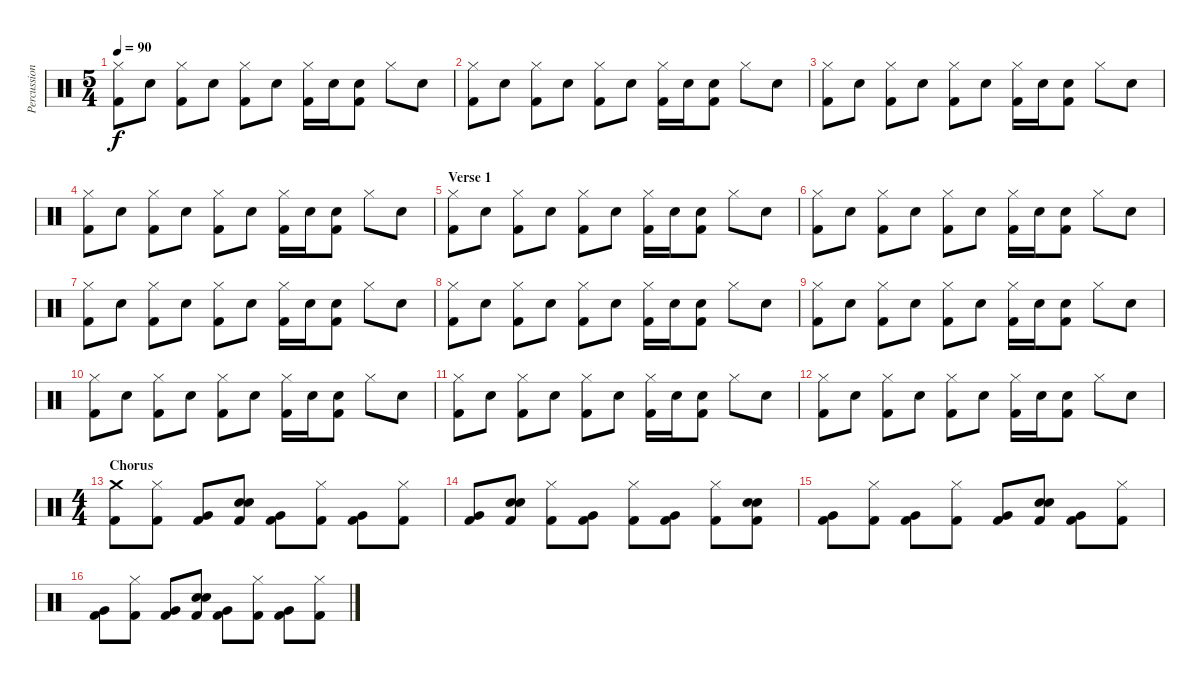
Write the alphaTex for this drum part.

\track ("Percussion" "Percussion") {instrument percussion}
\staff {score}
\articulation defaults
\ts (5 4)
\tempo 90
\clef neutral
\ks c
("Hi-Hat (closed)" "Kick (hit) 2").8{dy f} "Snare (hit) 2".8 ("Hi-Hat (closed)" "Kick (hit) 2").8 "Snare (hit) 2".8 ("Hi-Hat (closed)" "Kick (hit) 2").8 "Snare (hit) 2".8 ("Hi-Hat (closed)" "Kick (hit) 2").16 "Snare (hit) 2".16 ("Snare (hit) 2" "Kick (hit) 2").8 "Hi-Hat (closed)".8 "Snare (hit) 2".8 |
("Hi-Hat (closed)" "Kick (hit) 2").8 "Snare (hit) 2".8 ("Hi-Hat (closed)" "Kick (hit) 2").8 "Snare (hit) 2".8 ("Hi-Hat (closed)" "Kick (hit) 2").8 "Snare (hit) 2".8 ("Hi-Hat (closed)" "Kick (hit) 2").16 "Snare (hit) 2".16 ("Snare (hit) 2" "Kick (hit) 2").8 "Hi-Hat (closed)".8 "Snare (hit) 2".8 |
("Hi-Hat (closed)" "Kick (hit) 2").8 "Snare (hit) 2".8 ("Hi-Hat (closed)" "Kick (hit) 2").8 "Snare (hit) 2".8 ("Hi-Hat (closed)" "Kick (hit) 2").8 "Snare (hit) 2".8 ("Hi-Hat (closed)" "Kick (hit) 2").16 "Snare (hit) 2".16 ("Snare (hit) 2" "Kick (hit) 2").8 "Hi-Hat (closed)".8 "Snare (hit) 2".8 |
("Hi-Hat (closed)" "Kick (hit) 2").8 "Snare (hit) 2".8 ("Hi-Hat (closed)" "Kick (hit) 2").8 "Snare (hit) 2".8 ("Hi-Hat (closed)" "Kick (hit) 2").8 "Snare (hit) 2".8 ("Hi-Hat (closed)" "Kick (hit) 2").16 "Snare (hit) 2".16 ("Snare (hit) 2" "Kick (hit) 2").8 "Hi-Hat (closed)".8 "Snare (hit) 2".8 |
\section ("" "Verse 1")
("Hi-Hat (closed)" "Kick (hit) 2").8 "Snare (hit) 2".8 ("Hi-Hat (closed)" "Kick (hit) 2").8 "Snare (hit) 2".8 ("Hi-Hat (closed)" "Kick (hit) 2").8 "Snare (hit) 2".8 ("Hi-Hat (closed)" "Kick (hit) 2").16 "Snare (hit) 2".16 ("Snare (hit) 2" "Kick (hit) 2").8 "Hi-Hat (closed)".8 "Snare (hit) 2".8 |
("Hi-Hat (closed)" "Kick (hit) 2").8 "Snare (hit) 2".8 ("Hi-Hat (closed)" "Kick (hit) 2").8 "Snare (hit) 2".8 ("Hi-Hat (closed)" "Kick (hit) 2").8 "Snare (hit) 2".8 ("Hi-Hat (closed)" "Kick (hit) 2").16 "Snare (hit) 2".16 ("Snare (hit) 2" "Kick (hit) 2").8 "Hi-Hat (closed)".8 "Snare (hit) 2".8 |
("Hi-Hat (closed)" "Kick (hit) 2").8 "Snare (hit) 2".8 ("Hi-Hat (closed)" "Kick (hit) 2").8 "Snare (hit) 2".8 ("Hi-Hat (closed)" "Kick (hit) 2").8 "Snare (hit) 2".8 ("Hi-Hat (closed)" "Kick (hit) 2").16 "Snare (hit) 2".16 ("Snare (hit) 2" "Kick (hit) 2").8 "Hi-Hat (closed)".8 "Snare (hit) 2".8 |
("Hi-Hat (closed)" "Kick (hit) 2").8 "Snare (hit) 2".8 ("Hi-Hat (closed)" "Kick (hit) 2").8 "Snare (hit) 2".8 ("Hi-Hat (closed)" "Kick (hit) 2").8 "Snare (hit) 2".8 ("Hi-Hat (closed)" "Kick (hit) 2").16 "Snare (hit) 2".16 ("Snare (hit) 2" "Kick (hit) 2").8 "Hi-Hat (closed)".8 "Snare (hit) 2".8 |
("Hi-Hat (closed)" "Kick (hit) 2").8 "Snare (hit) 2".8 ("Hi-Hat (closed)" "Kick (hit) 2").8 "Snare (hit) 2".8 ("Hi-Hat (closed)" "Kick (hit) 2").8 "Snare (hit) 2".8 ("Hi-Hat (closed)" "Kick (hit) 2").16 "Snare (hit) 2".16 ("Snare (hit) 2" "Kick (hit) 2").8 "Hi-Hat (closed)".8 "Snare (hit) 2".8 |
("Hi-Hat (closed)" "Kick (hit) 2").8 "Snare (hit) 2".8 ("Hi-Hat (closed)" "Kick (hit) 2").8 "Snare (hit) 2".8 ("Hi-Hat (closed)" "Kick (hit) 2").8 "Snare (hit) 2".8 ("Hi-Hat (closed)" "Kick (hit) 2").16 "Snare (hit) 2".16 ("Snare (hit) 2" "Kick (hit) 2").8 "Hi-Hat (closed)".8 "Snare (hit) 2".8 |
("Hi-Hat (closed)" "Kick (hit) 2").8 "Snare (hit) 2".8 ("Hi-Hat (closed)" "Kick (hit) 2").8 "Snare (hit) 2".8 ("Hi-Hat (closed)" "Kick (hit) 2").8 "Snare (hit) 2".8 ("Hi-Hat (closed)" "Kick (hit) 2").16 "Snare (hit) 2".16 ("Snare (hit) 2" "Kick (hit) 2").8 "Hi-Hat (closed)".8 "Snare (hit) 2".8 |
("Hi-Hat (closed)" "Kick (hit) 2").8 "Snare (hit) 2".8 ("Hi-Hat (closed)" "Kick (hit) 2").8 "Snare (hit) 2".8 ("Hi-Hat (closed)" "Kick (hit) 2").8 "Snare (hit) 2".8 ("Hi-Hat (closed)" "Kick (hit) 2").16 "Snare (hit) 2".16 ("Snare (hit) 2" "Kick (hit) 2").8 "Hi-Hat (closed)".8 "Snare (hit) 2".8 |
\ts (4 4)
\section ("" "Chorus")
("Crash medium (hit)" "Kick (hit) 2").8 ("Hi-Hat (closed)" "Kick (hit) 2").8 ("Very Low Tom (hit)" "Kick (hit) 2").8 ("Electric Snare (hit)" "Snare (hit) 2" "Kick (hit) 2").8 ("Very Low Tom (hit)" "Kick (hit) 2").8 ("Hi-Hat (closed)" "Kick (hit) 2").8 ("Very Low Tom (hit)" "Kick (hit) 2").8 ("Hi-Hat (closed)" "Kick (hit) 2").8 |
("Very Low Tom (hit)" "Kick (hit) 2").8 ("Electric Snare (hit)" "Snare (hit) 2" "Kick (hit) 2").8 ("Hi-Hat (closed)" "Kick (hit) 2").8 ("Very Low Tom (hit)" "Kick (hit) 2").8 ("Hi-Hat (closed)" "Kick (hit) 2").8 ("Very Low Tom (hit)" "Kick (hit) 2").8 ("Hi-Hat (closed)" "Kick (hit) 2").8 ("Electric Snare (hit)" "Snare (hit) 2" "Kick (hit) 2").8 |
("Very Low Tom (hit)" "Kick (hit) 2").8 ("Hi-Hat (closed)" "Kick (hit) 2").8 ("Very Low Tom (hit)" "Kick (hit) 2").8 ("Hi-Hat (closed)" "Kick (hit) 2").8 ("Very Low Tom (hit)" "Kick (hit) 2").8 ("Electric Snare (hit)" "Snare (hit) 2" "Kick (hit) 2").8 ("Very Low Tom (hit)" "Kick (hit) 2").8 ("Hi-Hat (closed)" "Kick (hit) 2").8 |
("Very Low Tom (hit)" "Kick (hit) 2").8 ("Hi-Hat (closed)" "Kick (hit) 2").8 ("Very Low Tom (hit)" "Kick (hit) 2").8 ("Electric Snare (hit)" "Snare (hit) 2" "Kick (hit) 2").8 ("Very Low Tom (hit)" "Kick (hit) 2").8 ("Hi-Hat (closed)" "Kick (hit) 2").8 ("Very Low Tom (hit)" "Kick (hit) 2").8 ("Hi-Hat (closed)" "Kick (hit) 2").8
